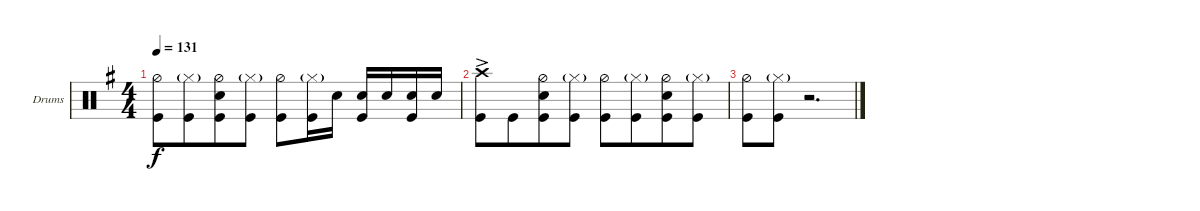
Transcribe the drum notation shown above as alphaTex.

\defaultSystemsLayout 4
\bracketExtendMode groupsimilarinstruments
\firstSystemTrackNameOrientation horizontal
\otherSystemsTrackNameOrientation horizontal
\track ("Drumkit" "Drums") {instrument percussion}
\staff {score}
\articulation defaults
\ts (4 4)
\tempo 131
\clef neutral
\ks eminor
("Kick (hit)" "Hi-Hat (half)").8{dy f} ("Kick (hit)" "Hi-Hat (closed)"{g}).8{beam merge} ("Kick (hit)" "Hi-Hat (half)" "Snare (hit) 2").8 ("Kick (hit)" "Hi-Hat (closed)"{g}).8 ("Kick (hit)" "Hi-Hat (half)").8 ("Kick (hit)" "Hi-Hat (closed)"{g}).16 "Snare (hit) 2".16 ("Snare (hit) 2" "Kick (hit)").16 "Snare (hit) 2".16 ("Snare (hit) 2" "Kick (hit)").16 "Snare (hit) 2".16 |
("Kick (hit)" "Crash high (hit)"{ac}).8 "Kick (hit)".8{beam merge} ("Kick (hit)" "Hi-Hat (half)" "Snare (hit) 2").8 ("Kick (hit)" "Hi-Hat (closed)"{g}).8 ("Kick (hit)" "Hi-Hat (half)").8 ("Kick (hit)" "Hi-Hat (closed)"{g}).8{beam merge} ("Kick (hit)" "Hi-Hat (half)" "Snare (hit) 2").8 ("Kick (hit)" "Hi-Hat (closed)"{g}).8 |
("Kick (hit)" "Hi-Hat (half)").8 ("Kick (hit)" "Hi-Hat (closed)"{g}).8{beam merge} r.2{d}
